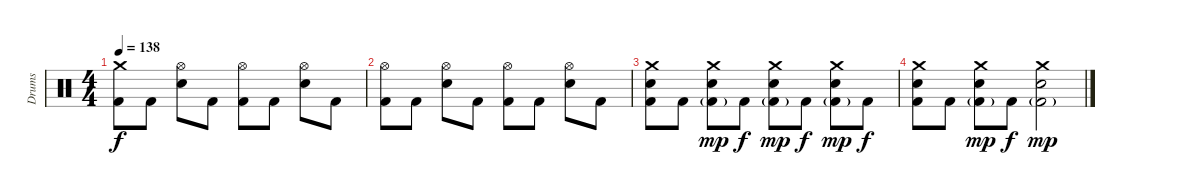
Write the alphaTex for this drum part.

\track ("Drums" "Drums") {instrument percussion}
\staff {score}
\articulation defaults
\ts (4 4)
\tempo 138
\clef neutral
\ks c
("Crash medium (hit)" "Kick (hit) 2").8{dy f} "Kick (hit) 2".8 ("Hi-Hat (open)" "Electric Snare (hit)").8 "Kick (hit) 2".8 ("Hi-Hat (open)" "Kick (hit) 2").8 "Kick (hit) 2".8 ("Hi-Hat (open)" "Electric Snare (hit)").8 "Kick (hit) 2".8 |
("Hi-Hat (open)" "Kick (hit) 2").8 "Kick (hit) 2".8 ("Hi-Hat (open)" "Electric Snare (hit)").8 "Kick (hit) 2".8 ("Hi-Hat (open)" "Kick (hit) 2").8 "Kick (hit) 2".8 ("Hi-Hat (open)" "Electric Snare (hit)").8 "Kick (hit) 2".8 |
("Crash medium (hit)" "Electric Snare (hit)" "Kick (hit) 2").8 "Kick (hit) 2".8 ("Crash medium (hit)" "Electric Snare (hit)" "Kick (hit) 2"{g}).8{dy mp} "Kick (hit) 2".8{dy f} ("Crash medium (hit)" "Electric Snare (hit)" "Kick (hit) 2"{g}).8{dy mp} "Kick (hit) 2".8{dy f} ("Crash medium (hit)" "Electric Snare (hit)" "Kick (hit) 2"{g}).8{dy mp} "Kick (hit) 2".8{dy f} |
("Crash medium (hit)" "Electric Snare (hit)" "Kick (hit) 2").8 "Kick (hit) 2".8 ("Crash medium (hit)" "Electric Snare (hit)" "Kick (hit) 2"{g}).8{dy mp} "Kick (hit) 2".8{dy f} ("Crash medium (hit)" "Electric Snare (hit)" "Kick (hit) 2"{g}).2{dy mp}
